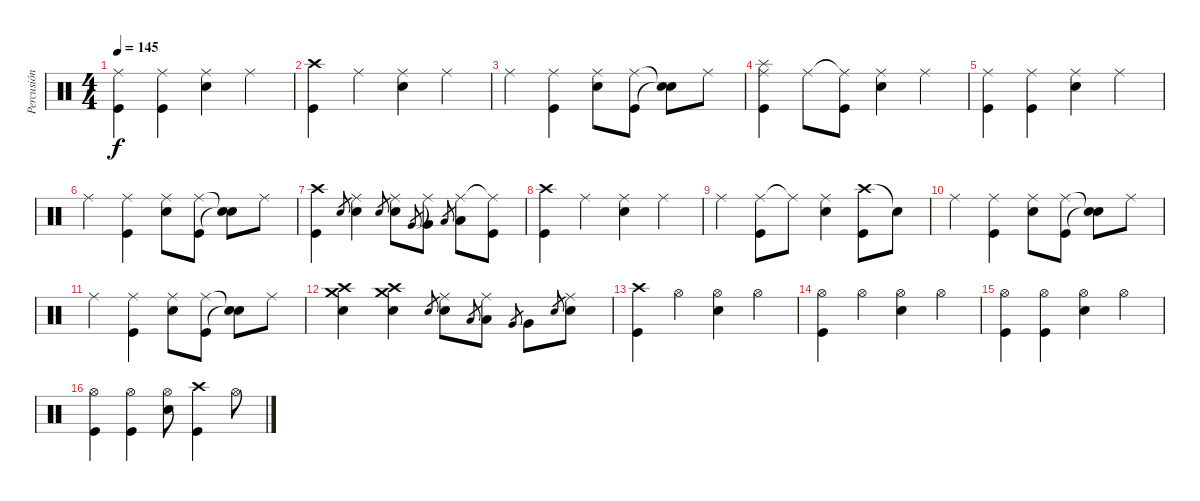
\track ("Percusión" "Percusión") {instrument percussion}
\staff {score}
\articulation defaults
\ts (4 4)
\tempo 145
\clef neutral
\ks c
("Ride (middle)" "Kick (hit)").4{dy f} ("Ride (middle)" "Kick (hit)").4 ("Ride (middle)" "Electric Snare (hit)").4 "Ride (middle)".4 |
("Crash high (hit)" "Kick (hit)").4 "Ride (middle)".4 ("Ride (middle)" "Electric Snare (hit)").4 "Ride (middle)".4 |
"Ride (middle)".4 ("Ride (middle)" "Kick (hit)").4 ("Ride (middle)" "Electric Snare (hit)").8 ("Ride (middle)" "Kick (hit)").8 ("Snare (hit)"{t} "Snare (hit)"{t}).8 "Ride (middle)".8 |
("Ride (middle)" "Splash (hit)" "Kick (hit)").4 "Ride (middle)".8 ("Ride (middle)"{t} "Kick (hit)").8 ("Ride (middle)" "Electric Snare (hit)").4 "Ride (middle)".4 |
("Ride (middle)" "Kick (hit)").4 ("Ride (middle)" "Kick (hit)").4 ("Ride (middle)" "Electric Snare (hit)").4 "Ride (middle)".4 |
"Ride (middle)".4 ("Ride (middle)" "Kick (hit)").4 ("Ride (middle)" "Electric Snare (hit)").8 ("Ride (middle)" "Kick (hit)").8 ("Snare (hit)"{t} "Snare (hit)"{t}).8 "Ride (middle)".8 |
("Crash high (hit)" "Kick (hit)").4 "Electric Snare (hit)".8{gr} ("Ride (middle)" "Electric Snare (hit)").4 "Electric Snare (hit)".8{gr} ("Ride (middle)" "Electric Snare (hit)").8 "Very Low Tom (hit)".8{gr} ("Ride (middle)"{t} "Very Low Tom (hit)").8 "Low Floor Tom (hit)".8{gr} ("Ride (middle)" "Low Floor Tom (hit)").8 ("Ride (middle)"{t} "Kick (hit)").8 |
("Crash high (hit)" "Kick (hit)").4 "Ride (middle)".4 ("Ride (middle)" "Electric Snare (hit)").4 "Ride (middle)".4 |
"Ride (middle)".4 ("Ride (middle)" "Kick (hit)").8 "Ride (middle)"{t}.8 ("Ride (middle)" "Electric Snare (hit)").4 ("Crash high (hit)" "Kick (hit)").8 "Snare (hit)"{t}.8 |
"Ride (middle)".4 ("Ride (middle)" "Kick (hit)").4 ("Ride (middle)" "Electric Snare (hit)").8 ("Ride (middle)" "Kick (hit)").8 ("Snare (hit)"{t} "Snare (hit)"{t}).8 "Ride (middle)".8 |
"Ride (middle)".4 ("Ride (middle)" "Kick (hit)").4 ("Ride (middle)" "Electric Snare (hit)").8 ("Ride (middle)" "Kick (hit)").8 ("Snare (hit)"{t} "Snare (hit)"{t}).8 "Ride (middle)".8 |
("Crash medium (hit)" "Crash high (hit)" "Electric Snare (hit)").4 ("Crash medium (hit)" "Crash high (hit)" "Electric Snare (hit)").4 "Electric Snare (hit)".8{gr} ("Ride (middle)" "Electric Snare (hit)").8 "Low Floor Tom (hit)".8{gr} ("Ride (middle)" "Low Floor Tom (hit)").8 "Very Low Tom (hit)".8{gr} "Very Low Tom (hit)".8 "Electric Snare (hit)".8{gr} ("Ride (middle)" "Electric Snare (hit)").8 |
("Crash high (hit)" "Kick (hit)").4 "Hi-Hat (open)".4 ("Hi-Hat (open)" "Electric Snare (hit)").4 "Hi-Hat (open)".4 |
("Hi-Hat (open)" "Kick (hit)").4 "Hi-Hat (open)".4 ("Hi-Hat (open)" "Electric Snare (hit)").4 "Hi-Hat (open)".4 |
("Hi-Hat (open)" "Kick (hit)").4 ("Hi-Hat (open)" "Kick (hit)").4 ("Hi-Hat (open)" "Electric Snare (hit)").4 "Hi-Hat (open)".4 |
("Hi-Hat (open)" "Kick (hit)").4 ("Hi-Hat (open)" "Kick (hit)").4 ("Hi-Hat (open)" "Electric Snare (hit)").8 ("Crash high (hit)" "Kick (hit)").4 "Hi-Hat (open)".8
